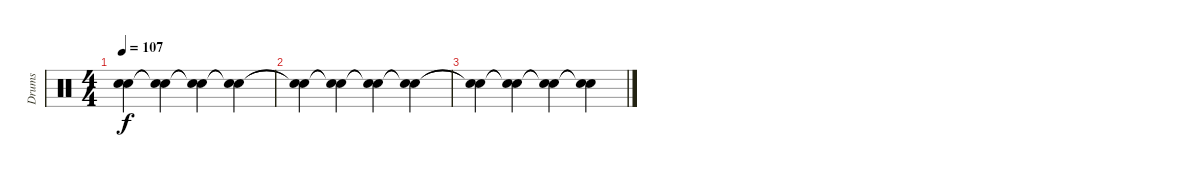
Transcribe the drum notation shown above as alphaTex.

\track ("Drums" "Drums") {instrument percussion}
\staff {score}
\articulation defaults
\ts (4 4)
\tempo 107
\clef neutral
\ks c
("Snare (hit)"{t} "Snare (hit)"{t}).4{dy f} ("Snare (hit)"{t} "Snare (hit)"{t}).4 ("Snare (hit)"{t} "Snare (hit)"{t}).4 ("Snare (hit)"{t} "Snare (hit)"{t}).4 |
("Snare (hit)"{t} "Snare (hit)"{t}).4 ("Snare (hit)"{t} "Snare (hit)"{t}).4 ("Snare (hit)"{t} "Snare (hit)"{t}).4 ("Snare (hit)"{t} "Snare (hit)"{t}).4 |
("Snare (hit)"{t} "Snare (hit)"{t}).4 ("Snare (hit)"{t} "Snare (hit)"{t}).4 ("Snare (hit)"{t} "Snare (hit)"{t}).4 ("Snare (hit)"{t} "Snare (hit)"{t}).4
